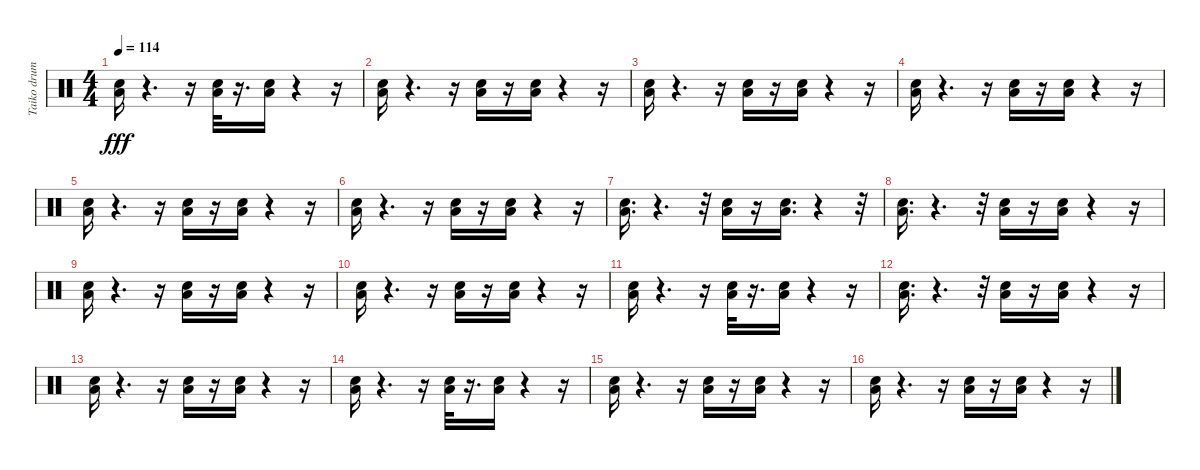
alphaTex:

\track ("Taiko drum" "Taiko drum") {instrument percussion}
\staff {score}
\articulation defaults
\ts (4 4)
\tempo 114
\clef neutral
\ks c
("Low Floor Tom (hit)" "Electric Snare (hit)").16{dy fff} r.4{d} r.16 ("Low Floor Tom (hit)" "Electric Snare (hit)").32 r.16{d} ("Low Floor Tom (hit)" "Electric Snare (hit)").16 r.4 r.16 |
("Low Floor Tom (hit)" "Electric Snare (hit)").16 r.4{d} r.16 ("Low Floor Tom (hit)" "Electric Snare (hit)").16 r.16 ("Low Floor Tom (hit)" "Electric Snare (hit)").16 r.4 r.16 |
("Low Floor Tom (hit)" "Electric Snare (hit)").16 r.4{d} r.16 ("Low Floor Tom (hit)" "Electric Snare (hit)").16 r.16 ("Low Floor Tom (hit)" "Electric Snare (hit)").16 r.4 r.16 |
("Low Floor Tom (hit)" "Electric Snare (hit)").16 r.4{d} r.16 ("Low Floor Tom (hit)" "Electric Snare (hit)").16 r.16 ("Low Floor Tom (hit)" "Electric Snare (hit)").16 r.4 r.16 |
("Low Floor Tom (hit)" "Electric Snare (hit)").16 r.4{d} r.16 ("Low Floor Tom (hit)" "Electric Snare (hit)").16 r.16 ("Low Floor Tom (hit)" "Electric Snare (hit)").16 r.4 r.16 |
("Electric Snare (hit)" "Low Floor Tom (hit)").16 r.4{d} r.16 ("Electric Snare (hit)" "Low Floor Tom (hit)").16 r.16 ("Electric Snare (hit)" "Low Floor Tom (hit)").16 r.4 r.16 |
("Low Floor Tom (hit)" "Electric Snare (hit)").16{d} r.4{d} r.32 ("Low Floor Tom (hit)" "Electric Snare (hit)").16 r.16 ("Low Floor Tom (hit)" "Electric Snare (hit)").16{d} r.4 r.32 |
("Low Floor Tom (hit)" "Electric Snare (hit)").16{d} r.4{d} r.32 ("Low Floor Tom (hit)" "Electric Snare (hit)").16 r.16 ("Low Floor Tom (hit)" "Electric Snare (hit)").16 r.4 r.16 |
("Low Floor Tom (hit)" "Electric Snare (hit)").16 r.4{d} r.16 ("Low Floor Tom (hit)" "Electric Snare (hit)").16 r.16 ("Low Floor Tom (hit)" "Electric Snare (hit)").16 r.4 r.16 |
("Low Floor Tom (hit)" "Electric Snare (hit)").16 r.4{d} r.16 ("Low Floor Tom (hit)" "Electric Snare (hit)").16 r.16 ("Low Floor Tom (hit)" "Electric Snare (hit)").16 r.4 r.16 |
("Low Floor Tom (hit)" "Electric Snare (hit)").16 r.4{d} r.16 ("Electric Snare (hit)" "Low Floor Tom (hit)").32 r.16{d} ("Low Floor Tom (hit)" "Electric Snare (hit)").16 r.4 r.16 |
("Low Floor Tom (hit)" "Electric Snare (hit)").16{d} r.4{d} r.32 ("Low Floor Tom (hit)" "Electric Snare (hit)").16 r.16 ("Low Floor Tom (hit)" "Electric Snare (hit)").16 r.4 r.16 |
("Low Floor Tom (hit)" "Electric Snare (hit)").16 r.4{d} r.16 ("Low Floor Tom (hit)" "Electric Snare (hit)").16 r.16 ("Low Floor Tom (hit)" "Electric Snare (hit)").16 r.4 r.16 |
("Low Floor Tom (hit)" "Electric Snare (hit)").16 r.4{d} r.16 ("Low Floor Tom (hit)" "Electric Snare (hit)").32 r.16{d} ("Low Floor Tom (hit)" "Electric Snare (hit)").16 r.4 r.16 |
("Low Floor Tom (hit)" "Electric Snare (hit)").16 r.4{d} r.16 ("Low Floor Tom (hit)" "Electric Snare (hit)").16 r.16 ("Low Floor Tom (hit)" "Electric Snare (hit)").16 r.4 r.16 |
("Low Floor Tom (hit)" "Electric Snare (hit)").16 r.4{d} r.16 ("Low Floor Tom (hit)" "Electric Snare (hit)").16 r.16 ("Low Floor Tom (hit)" "Electric Snare (hit)").16 r.4 r.16
